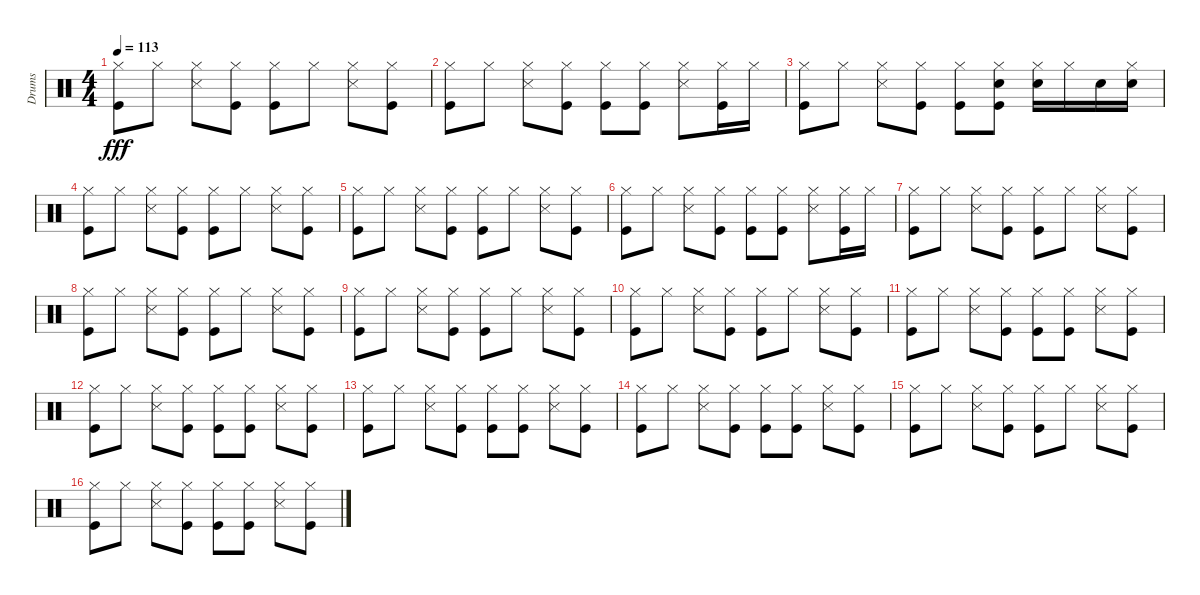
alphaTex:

\track ("Drums" "Drums") {instrument percussion}
\staff {score}
\articulation defaults
\ts (4 4)
\tempo 113
\clef neutral
\ks c
("Kick (hit)" "Hi-Hat (closed)").8{dy fff} "Hi-Hat (closed)".8 ("Snare (side stick) 3" "Hi-Hat (closed)").8 ("Kick (hit)" "Hi-Hat (closed)").8 ("Kick (hit)" "Hi-Hat (closed)").8 "Hi-Hat (closed)".8 ("Snare (side stick) 3" "Hi-Hat (closed)").8 ("Kick (hit)" "Hi-Hat (closed)").8 |
("Kick (hit)" "Hi-Hat (closed)").8 "Hi-Hat (closed)".8 ("Snare (side stick) 3" "Hi-Hat (closed)").8 ("Kick (hit)" "Hi-Hat (closed)").8 ("Kick (hit)" "Hi-Hat (closed)").8 ("Kick (hit)" "Hi-Hat (closed)").8 ("Snare (side stick) 3" "Hi-Hat (closed)").8 ("Kick (hit)" "Hi-Hat (closed)").16 "Hi-Hat (closed)".16 |
("Kick (hit)" "Hi-Hat (closed)").8 "Hi-Hat (closed)".8 ("Snare (side stick) 3" "Hi-Hat (closed)").8 ("Kick (hit)" "Hi-Hat (closed)").8 ("Kick (hit)" "Hi-Hat (closed)").8 ("Kick (hit)" "Hi-Hat (closed)" "Snare (hit) 2").8 ("Snare (hit) 2" "Hi-Hat (closed)").16 "Hi-Hat (closed)".16 "Snare (hit) 2".16 ("Snare (hit) 2" "Hi-Hat (closed)").16 |
("Kick (hit)" "Hi-Hat (closed)").8 "Hi-Hat (closed)".8 ("Snare (side stick) 3" "Hi-Hat (closed)").8 ("Kick (hit)" "Hi-Hat (closed)").8 ("Kick (hit)" "Hi-Hat (closed)").8 "Hi-Hat (closed)".8 ("Snare (side stick) 3" "Hi-Hat (closed)").8 ("Kick (hit)" "Hi-Hat (closed)").8 |
("Kick (hit)" "Hi-Hat (closed)").8 "Hi-Hat (closed)".8 ("Snare (side stick) 3" "Hi-Hat (closed)").8 ("Kick (hit)" "Hi-Hat (closed)").8 ("Kick (hit)" "Hi-Hat (closed)").8 "Hi-Hat (closed)".8 ("Snare (side stick) 3" "Hi-Hat (closed)").8 ("Kick (hit)" "Hi-Hat (closed)").8 |
("Kick (hit)" "Hi-Hat (closed)").8 "Hi-Hat (closed)".8 ("Snare (side stick) 3" "Hi-Hat (closed)").8 ("Kick (hit)" "Hi-Hat (closed)").8 ("Kick (hit)" "Hi-Hat (closed)").8 ("Kick (hit)" "Hi-Hat (closed)").8 ("Snare (side stick) 3" "Hi-Hat (closed)").8 ("Kick (hit)" "Hi-Hat (closed)").16 "Hi-Hat (closed)".16 |
("Kick (hit)" "Hi-Hat (closed)").8 "Hi-Hat (closed)".8 ("Snare (side stick) 3" "Hi-Hat (closed)").8 ("Kick (hit)" "Hi-Hat (closed)").8 ("Kick (hit)" "Hi-Hat (closed)").8 "Hi-Hat (closed)".8 ("Snare (side stick) 3" "Hi-Hat (closed)").8 ("Kick (hit)" "Hi-Hat (closed)").8 |
("Kick (hit)" "Hi-Hat (closed)").8 "Hi-Hat (closed)".8 ("Snare (side stick) 3" "Hi-Hat (closed)").8 ("Kick (hit)" "Hi-Hat (closed)").8 ("Kick (hit)" "Hi-Hat (closed)").8 "Hi-Hat (closed)".8 ("Snare (side stick) 3" "Hi-Hat (closed)").8 ("Kick (hit)" "Hi-Hat (closed)").8 |
("Kick (hit)" "Hi-Hat (closed)").8 "Hi-Hat (closed)".8 ("Snare (side stick) 3" "Hi-Hat (closed)").8 ("Kick (hit)" "Hi-Hat (closed)").8 ("Kick (hit)" "Hi-Hat (closed)").8 "Hi-Hat (closed)".8 ("Snare (side stick) 3" "Hi-Hat (closed)").8 ("Kick (hit)" "Hi-Hat (closed)").8 |
("Kick (hit)" "Hi-Hat (closed)").8 "Hi-Hat (closed)".8 ("Snare (side stick) 3" "Hi-Hat (closed)").8 ("Kick (hit)" "Hi-Hat (closed)").8 ("Kick (hit)" "Hi-Hat (closed)").8 "Hi-Hat (closed)".8 ("Snare (side stick) 3" "Hi-Hat (closed)").8 ("Kick (hit)" "Hi-Hat (closed)").8 |
("Kick (hit)" "Hi-Hat (closed)").8 "Hi-Hat (closed)".8 ("Snare (side stick) 3" "Hi-Hat (closed)").8 ("Kick (hit)" "Hi-Hat (closed)").8 ("Kick (hit)" "Hi-Hat (closed)").8 ("Kick (hit)" "Hi-Hat (closed)").8 ("Snare (side stick) 3" "Hi-Hat (closed)").8 ("Kick (hit)" "Hi-Hat (closed)").8 |
("Kick (hit)" "Hi-Hat (closed)").8 "Hi-Hat (closed)".8 ("Snare (side stick) 3" "Hi-Hat (closed)").8 ("Kick (hit)" "Hi-Hat (closed)").8 ("Kick (hit)" "Hi-Hat (closed)").8 ("Kick (hit)" "Hi-Hat (closed)").8 ("Snare (side stick) 3" "Hi-Hat (closed)").8 ("Kick (hit)" "Hi-Hat (closed)").8 |
("Kick (hit)" "Hi-Hat (closed)").8 "Hi-Hat (closed)".8 ("Snare (side stick) 3" "Hi-Hat (closed)").8 ("Kick (hit)" "Hi-Hat (closed)").8 ("Kick (hit)" "Hi-Hat (closed)").8 ("Kick (hit)" "Hi-Hat (closed)").8 ("Snare (side stick) 3" "Hi-Hat (closed)").8 ("Kick (hit)" "Hi-Hat (closed)").8 |
("Kick (hit)" "Hi-Hat (closed)").8 "Hi-Hat (closed)".8 ("Snare (side stick) 3" "Hi-Hat (closed)").8 ("Kick (hit)" "Hi-Hat (closed)").8 ("Kick (hit)" "Hi-Hat (closed)").8 ("Kick (hit)" "Hi-Hat (closed)").8 ("Snare (side stick) 3" "Hi-Hat (closed)").8 ("Kick (hit)" "Hi-Hat (closed)").8 |
("Kick (hit)" "Hi-Hat (closed)").8 "Hi-Hat (closed)".8 ("Snare (side stick) 3" "Hi-Hat (closed)").8 ("Kick (hit)" "Hi-Hat (closed)").8 ("Kick (hit)" "Hi-Hat (closed)").8 "Hi-Hat (closed)".8 ("Snare (side stick) 3" "Hi-Hat (closed)").8 ("Kick (hit)" "Hi-Hat (closed)").8 |
("Kick (hit)" "Hi-Hat (closed)").8 "Hi-Hat (closed)".8 ("Snare (side stick) 3" "Hi-Hat (closed)").8 ("Kick (hit)" "Hi-Hat (closed)").8 ("Kick (hit)" "Hi-Hat (closed)").8 ("Kick (hit)" "Hi-Hat (closed)").8 ("Snare (side stick) 3" "Hi-Hat (closed)").8 ("Kick (hit)" "Hi-Hat (closed)").8
